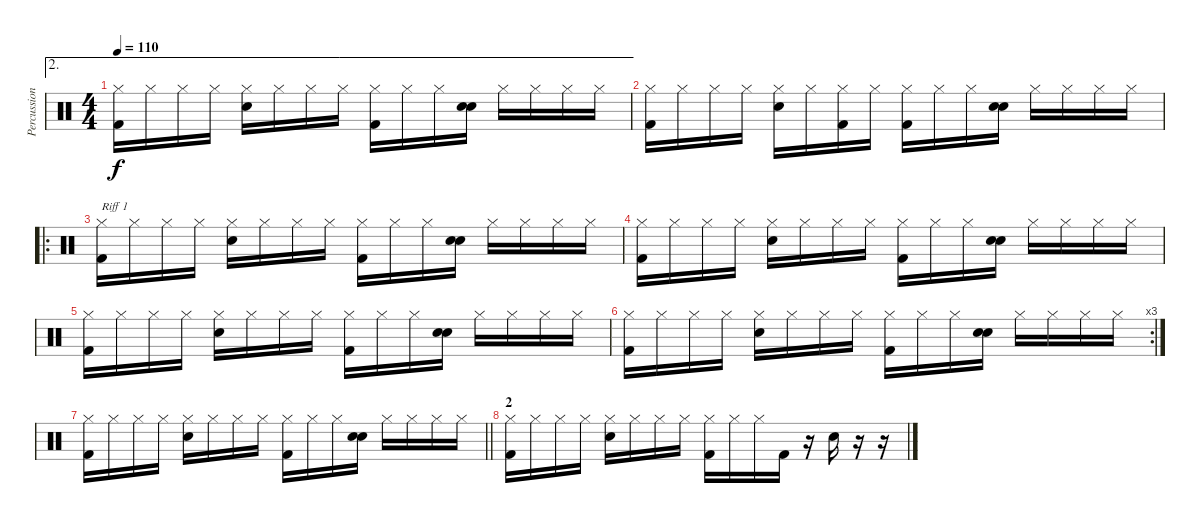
\track ("Percussion" "Percussion") {instrument percussion}
\staff {score}
\articulation defaults
\ae 2
\ts (4 4)
\tempo 110
\clef neutral
\ks c
("Hi-Hat (closed)" "Kick (hit) 2").16{dy f} "Hi-Hat (closed)".16 "Hi-Hat (closed)".16 "Hi-Hat (closed)".16 ("Hi-Hat (closed)" "Electric Snare (hit)").16 "Hi-Hat (closed)".16 "Hi-Hat (closed)".16 "Hi-Hat (closed)".16 ("Hi-Hat (closed)" "Kick (hit) 2").16 "Hi-Hat (closed)".16 "Hi-Hat (closed)".16 ("Snare (hit)" "Electric Snare (hit)").16 "Hi-Hat (closed)".16 "Hi-Hat (closed)".16 "Hi-Hat (closed)".16 "Hi-Hat (closed)".16 |
("Hi-Hat (closed)" "Kick (hit) 2").16 "Hi-Hat (closed)".16 "Hi-Hat (closed)".16 "Hi-Hat (closed)".16 ("Hi-Hat (closed)" "Electric Snare (hit)").16 "Hi-Hat (closed)".16 ("Hi-Hat (closed)" "Kick (hit) 2").16 "Hi-Hat (closed)".16 ("Hi-Hat (closed)" "Kick (hit) 2").16 "Hi-Hat (closed)".16 "Hi-Hat (closed)".16 ("Snare (hit)" "Electric Snare (hit)").16 "Hi-Hat (closed)".16 "Hi-Hat (closed)".16 "Hi-Hat (closed)".16 "Hi-Hat (closed)".16 |
\ro
("Hi-Hat (closed)" "Kick (hit) 2").16{txt "Riff 1"} "Hi-Hat (closed)".16 "Hi-Hat (closed)".16 "Hi-Hat (closed)".16 ("Hi-Hat (closed)" "Electric Snare (hit)").16 "Hi-Hat (closed)".16 "Hi-Hat (closed)".16 "Hi-Hat (closed)".16 ("Hi-Hat (closed)" "Kick (hit) 2").16 "Hi-Hat (closed)".16 "Hi-Hat (closed)".16 ("Snare (hit)" "Electric Snare (hit)").16 "Hi-Hat (closed)".16 "Hi-Hat (closed)".16 "Hi-Hat (closed)".16 "Hi-Hat (closed)".16 |
("Hi-Hat (closed)" "Kick (hit) 2").16 "Hi-Hat (closed)".16 "Hi-Hat (closed)".16 "Hi-Hat (closed)".16 ("Hi-Hat (closed)" "Electric Snare (hit)").16 "Hi-Hat (closed)".16 "Hi-Hat (closed)".16 "Hi-Hat (closed)".16 ("Hi-Hat (closed)" "Kick (hit) 2").16 "Hi-Hat (closed)".16 "Hi-Hat (closed)".16 ("Snare (hit)" "Electric Snare (hit)").16 "Hi-Hat (closed)".16 "Hi-Hat (closed)".16 "Hi-Hat (closed)".16 "Hi-Hat (closed)".16 |
("Hi-Hat (closed)" "Kick (hit) 2").16 "Hi-Hat (closed)".16 "Hi-Hat (closed)".16 "Hi-Hat (closed)".16 ("Hi-Hat (closed)" "Electric Snare (hit)").16 "Hi-Hat (closed)".16 "Hi-Hat (closed)".16 "Hi-Hat (closed)".16 ("Hi-Hat (closed)" "Kick (hit) 2").16 "Hi-Hat (closed)".16 "Hi-Hat (closed)".16 ("Snare (hit)" "Electric Snare (hit)").16 "Hi-Hat (closed)".16 "Hi-Hat (closed)".16 "Hi-Hat (closed)".16 "Hi-Hat (closed)".16 |
\rc 3
("Hi-Hat (closed)" "Kick (hit) 2").16 "Hi-Hat (closed)".16 "Hi-Hat (closed)".16 "Hi-Hat (closed)".16 ("Hi-Hat (closed)" "Electric Snare (hit)").16 "Hi-Hat (closed)".16 "Hi-Hat (closed)".16 "Hi-Hat (closed)".16 ("Hi-Hat (closed)" "Kick (hit) 2").16 "Hi-Hat (closed)".16 "Hi-Hat (closed)".16 ("Snare (hit)" "Electric Snare (hit)").16 "Hi-Hat (closed)".16 "Hi-Hat (closed)".16 "Hi-Hat (closed)".16 "Hi-Hat (closed)".16 |
\barLineRight lightlight
("Hi-Hat (closed)" "Kick (hit) 2").16 "Hi-Hat (closed)".16 "Hi-Hat (closed)".16 "Hi-Hat (closed)".16 ("Hi-Hat (closed)" "Electric Snare (hit)").16 "Hi-Hat (closed)".16 "Hi-Hat (closed)".16 "Hi-Hat (closed)".16 ("Hi-Hat (closed)" "Kick (hit) 2").16 "Hi-Hat (closed)".16 "Hi-Hat (closed)".16 ("Snare (hit)" "Electric Snare (hit)").16 "Hi-Hat (closed)".16 "Hi-Hat (closed)".16 "Hi-Hat (closed)".16 "Hi-Hat (closed)".16 |
\section ("" "2")
("Hi-Hat (closed)" "Kick (hit) 2").16 "Hi-Hat (closed)".16 "Hi-Hat (closed)".16 "Hi-Hat (closed)".16 ("Hi-Hat (closed)" "Electric Snare (hit)").16 "Hi-Hat (closed)".16 "Hi-Hat (closed)".16 "Hi-Hat (closed)".16 ("Hi-Hat (closed)" "Kick (hit) 2").16 "Hi-Hat (closed)".16 "Hi-Hat (closed)".16 "Kick (hit) 2".16 r.16 "Electric Snare (hit)".16 r.16 r.16
